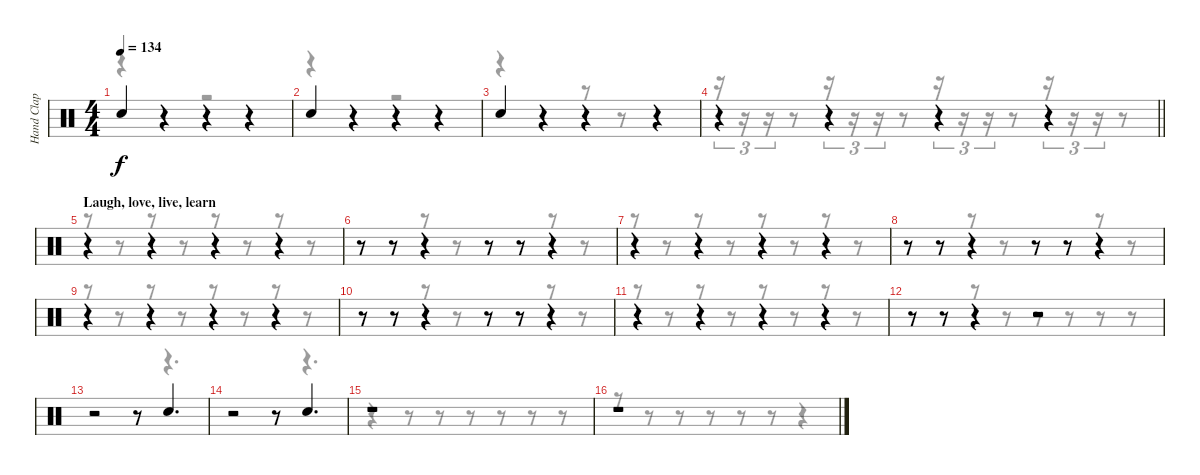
\track ("Hand Clap" "Hand Clap") {instrument percussion}
\staff {score}
\articulation defaults
\voice
\ts (4 4)
\tempo 134
\clef neutral
\ks c "Hand Clap (hit)".4{dy f}
r.4 r.4 r.4 |
"Hand Clap (hit)".4 r.4 r.4 r.4 |
"Hand Clap (hit)".4 r.4 r.4 r.4 |
\barLineRight lightlight
r.4 r.4 r.4 r.4 |
\section ("" "Laugh, love, live, learn")
r.4 r.4 r.4 r.4 |
r.8 r.8 r.4 r.8 r.8 r.4 |
r.4 r.4 r.4 r.4 |
r.8 r.8 r.4 r.8 r.8 r.4 |
r.4 r.4 r.4 r.4 |
r.8 r.8 r.4 r.8 r.8 r.4 |
r.4 r.4 r.4 r.4 |
r.8 r.8 r.4 r.2 |
r.2 r.8 "Hand Clap (hit)".4{d} |
r.2 r.8 "Hand Clap (hit)".4{d} |
r.1 |
r.1
\voice
\clef neutral
\ottava regular
\simile none
\ks c
r.4{dy f} r.4 r.2 |
r.4 r.4 r.2 |
r.4 r.4 r.8 r.8 r.4 |
\barLineRight lightlight
r.16{tu (3 2)} r.16{tu (3 2)} r.16{tu (3 2)} r.8 r.16{tu (3 2)} r.16{tu (3 2)} r.16{tu (3 2)} r.8 r.16{tu (3 2)} r.16{tu (3 2)} r.16{tu (3 2)} r.8 r.16{tu (3 2)} r.16{tu (3 2)} r.16{tu (3 2)} r.8 |
r.8 r.8 r.8 r.8 r.8 r.8 r.8 r.8 |
r.8 r.8 r.8 r.8 r.8 r.8 r.8 r.8 |
r.8 r.8 r.8 r.8 r.8 r.8 r.8 r.8 |
r.8 r.8 r.8 r.8 r.8 r.8 r.8 r.8 |
r.8 r.8 r.8 r.8 r.8 r.8 r.8 r.8 |
r.8 r.8 r.8 r.8 r.8 r.8 r.8 r.8 |
r.8 r.8 r.8 r.8 r.8 r.8 r.8 r.8 |
r.8 r.8 r.8 r.8 r.8 r.8 r.8 r.8 |
r.2 r.8 r.4{d} |
r.2 r.8 r.4{d} |
r.4 r.8 r.8 r.8 r.8 r.8 r.8 |
r.8 r.8 r.8 r.8 r.8 r.8 r.4
